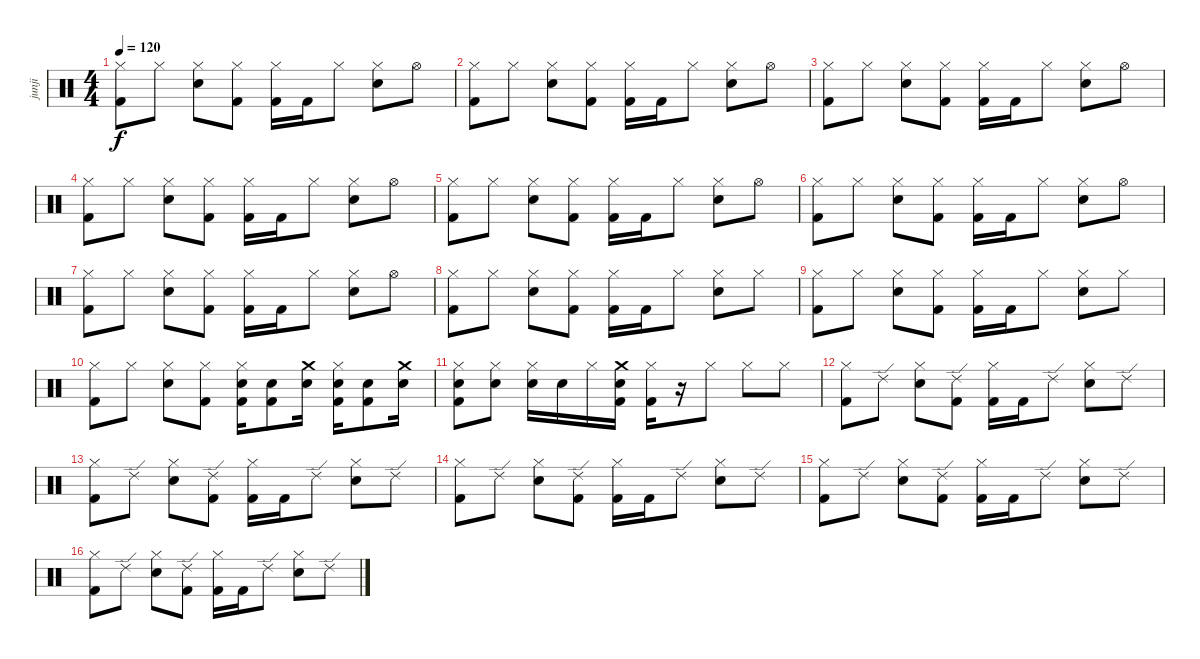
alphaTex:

\track ("junji" "junji") {instrument percussion}
\staff {score}
\articulation defaults
\ts (4 4)
\tempo 120
\clef neutral
\ks c
("Hi-Hat (closed)" "Kick (hit) 2").8{dy f} "Hi-Hat (closed)".8 ("Hi-Hat (closed)" "Snare (hit) 2").8 ("Hi-Hat (closed)" "Kick (hit) 2").8 ("Hi-Hat (closed)" "Kick (hit) 2"{x}).16 "Kick (hit) 2".16 "Hi-Hat (closed)".8 ("Hi-Hat (closed)" "Snare (hit) 2").8 "Hi-Hat (open)".8 |
("Hi-Hat (closed)" "Kick (hit) 2").8 "Hi-Hat (closed)".8 ("Hi-Hat (closed)" "Snare (hit) 2").8 ("Hi-Hat (closed)" "Kick (hit) 2").8 ("Hi-Hat (closed)" "Kick (hit) 2"{x}).16 "Kick (hit) 2".16 "Hi-Hat (closed)".8 ("Hi-Hat (closed)" "Snare (hit) 2").8 "Hi-Hat (open)".8 |
("Hi-Hat (closed)" "Kick (hit) 2").8 "Hi-Hat (closed)".8 ("Hi-Hat (closed)" "Snare (hit) 2").8 ("Hi-Hat (closed)" "Kick (hit) 2").8 ("Hi-Hat (closed)" "Kick (hit) 2"{x}).16 "Kick (hit) 2".16 "Hi-Hat (closed)".8 ("Hi-Hat (closed)" "Snare (hit) 2").8 "Hi-Hat (open)".8 |
("Hi-Hat (closed)" "Kick (hit) 2").8 "Hi-Hat (closed)".8 ("Hi-Hat (closed)" "Snare (hit) 2").8 ("Hi-Hat (closed)" "Kick (hit) 2").8 ("Hi-Hat (closed)" "Kick (hit) 2"{x}).16 "Kick (hit) 2".16 "Hi-Hat (closed)".8 ("Hi-Hat (closed)" "Snare (hit) 2").8 "Hi-Hat (open)".8 |
("Hi-Hat (closed)" "Kick (hit) 2").8 "Hi-Hat (closed)".8 ("Hi-Hat (closed)" "Snare (hit) 2").8 ("Hi-Hat (closed)" "Kick (hit) 2").8 ("Hi-Hat (closed)" "Kick (hit) 2"{x}).16 "Kick (hit) 2".16 "Hi-Hat (closed)".8 ("Hi-Hat (closed)" "Snare (hit) 2").8 "Hi-Hat (open)".8 |
("Hi-Hat (closed)" "Kick (hit) 2").8 "Hi-Hat (closed)".8 ("Hi-Hat (closed)" "Snare (hit) 2").8 ("Hi-Hat (closed)" "Kick (hit) 2").8 ("Hi-Hat (closed)" "Kick (hit) 2"{x}).16 "Kick (hit) 2".16 "Hi-Hat (closed)".8 ("Hi-Hat (closed)" "Snare (hit) 2").8 "Hi-Hat (open)".8 |
("Hi-Hat (closed)" "Kick (hit) 2").8 "Hi-Hat (closed)".8 ("Hi-Hat (closed)" "Snare (hit) 2").8 ("Hi-Hat (closed)" "Kick (hit) 2").8 ("Hi-Hat (closed)" "Kick (hit) 2"{x}).16 "Kick (hit) 2".16 "Hi-Hat (closed)".8 ("Hi-Hat (closed)" "Snare (hit) 2").8 "Hi-Hat (open)".8 |
("Hi-Hat (closed)" "Kick (hit) 2").8 "Hi-Hat (closed)".8 ("Hi-Hat (closed)" "Snare (hit) 2").8 ("Hi-Hat (closed)" "Kick (hit) 2").8 ("Hi-Hat (closed)" "Kick (hit) 2"{x}).16 "Kick (hit) 2".16 "Hi-Hat (closed)".8 ("Hi-Hat (closed)" "Snare (hit) 2").8 "Hi-Hat (closed)".8 |
("Hi-Hat (closed)" "Kick (hit) 2").8 "Hi-Hat (closed)".8 ("Hi-Hat (closed)" "Snare (hit) 2").8 ("Hi-Hat (closed)" "Kick (hit) 2").8 ("Hi-Hat (closed)" "Kick (hit) 2"{x}).16 "Kick (hit) 2".16 "Hi-Hat (closed)".8 ("Hi-Hat (closed)" "Snare (hit) 2").8 "Hi-Hat (closed)".8 |
("Hi-Hat (closed)" "Kick (hit) 2").8 "Hi-Hat (closed)".8 ("Hi-Hat (closed)" "Snare (hit) 2").8 ("Hi-Hat (closed)" "Kick (hit) 2").8 ("Hi-Hat (closed)" "Snare (hit) 2" "Kick (hit) 2"{x}).16 ("Snare (hit) 2" "Kick (hit) 2").8 ("Crash medium (hit)" "Snare (hit) 2").16 ("Hi-Hat (closed)" "Snare (hit) 2" "Kick (hit) 2"{x}).16 ("Snare (hit) 2" "Kick (hit) 2").8 ("Crash medium (hit)" "Snare (hit) 2").16 |
("Hi-Hat (closed)" "Snare (hit) 2" "Kick (hit) 2").8 ("Hi-Hat (closed)" "Snare (hit) 2").8 ("Hi-Hat (closed)" "Snare (hit) 2").16 "Snare (hit) 2".16 "Hi-Hat (closed)".16 ("Crash medium (hit)" "Snare (hit) 2" "Kick (hit) 2").16 ("Hi-Hat (closed)" "Kick (hit) 2"{x}).16 r.16 "Hi-Hat (closed)".8 "Hi-Hat (closed)".8 "Hi-Hat (closed)".8 |
("Hi-Hat (closed)" "Kick (hit) 2").8 "Ride (edge) 2".8 ("Hi-Hat (closed)" "Snare (hit) 2").8 ("Ride (edge) 2" "Kick (hit) 2").8 ("Hi-Hat (closed)" "Kick (hit) 2"{x}).16 "Kick (hit) 2".16 "Ride (edge) 2".8 ("Hi-Hat (closed)" "Snare (hit) 2").8 "Ride (edge) 2".8 |
("Hi-Hat (closed)" "Kick (hit) 2").8 "Ride (edge) 2".8 ("Hi-Hat (closed)" "Snare (hit) 2").8 ("Ride (edge) 2" "Kick (hit) 2").8 ("Hi-Hat (closed)" "Kick (hit) 2"{x}).16 "Kick (hit) 2".16 "Ride (edge) 2".8 ("Hi-Hat (closed)" "Snare (hit) 2").8 "Ride (edge) 2".8 |
("Hi-Hat (closed)" "Kick (hit) 2").8 "Ride (edge) 2".8 ("Hi-Hat (closed)" "Snare (hit) 2").8 ("Ride (edge) 2" "Kick (hit) 2").8 ("Hi-Hat (closed)" "Kick (hit) 2"{x}).16 "Kick (hit) 2".16 "Ride (edge) 2".8 ("Hi-Hat (closed)" "Snare (hit) 2").8 "Ride (edge) 2".8 |
("Hi-Hat (closed)" "Kick (hit) 2").8 "Ride (edge) 2".8 ("Hi-Hat (closed)" "Snare (hit) 2").8 ("Ride (edge) 2" "Kick (hit) 2").8 ("Hi-Hat (closed)" "Kick (hit) 2"{x}).16 "Kick (hit) 2".16 "Ride (edge) 2".8 ("Hi-Hat (closed)" "Snare (hit) 2").8 "Ride (edge) 2".8 |
("Hi-Hat (closed)" "Kick (hit) 2").8 "Ride (edge) 2".8 ("Hi-Hat (closed)" "Snare (hit) 2").8 ("Ride (edge) 2" "Kick (hit) 2").8 ("Hi-Hat (closed)" "Kick (hit) 2"{x}).16 "Kick (hit) 2".16 "Ride (edge) 2".8 ("Hi-Hat (closed)" "Snare (hit) 2").8 "Ride (edge) 2".8
